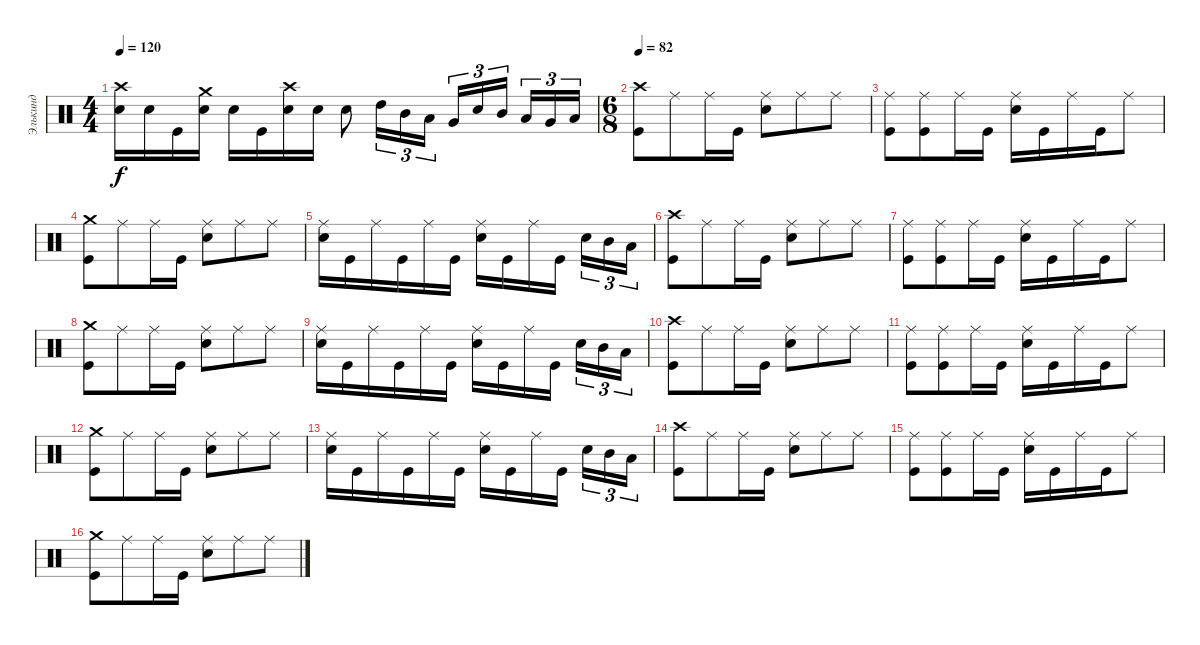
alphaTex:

\track ("Элькинд" "Элькинд") {instrument percussion}
\staff {score}
\articulation defaults
\ts (4 4)
\tempo 120
\clef neutral
\ks c
("Crash high (hit)" "Electric Snare (hit)").16{dy f} "Electric Snare (hit)".16 "Kick (hit)".16 ("Crash medium (hit)" "Electric Snare (hit)").16 "Electric Snare (hit)".16 "Kick (hit)".16 ("Crash high (hit)" "Electric Snare (hit)").16 "Electric Snare (hit)".16 "Electric Snare (hit)".8 "High Tom (hit)".16{tu (3 2)} "Mid Tom (hit)".16{tu (3 2)} "Low Tom (hit)".16{tu (3 2)} "Very Low Tom (hit)".16{tu (3 2)} "Electric Snare (hit)".16{tu (3 2)} "Mid Tom (hit)".16{tu (3 2) beam splitsecondary} "Low Tom (hit)".16{tu (3 2)} "Very Low Tom (hit)".16{tu (3 2)} "Low Floor Tom (hit)".16{tu (3 2)} |
\ts (6 8)
\tempo 82
("Kick (hit)" "Crash high (hit)").8 "Ride (middle)".8 "Ride (middle)".16 "Kick (hit)".16 ("Electric Snare (hit)" "Ride (middle)").8 "Ride (middle)".8 "Ride (middle)".8 |
("Ride (middle)" "Kick (hit)").8 ("Ride (middle)" "Kick (hit)").8 "Ride (middle)".16 "Kick (hit)".16 ("Ride (middle)" "Electric Snare (hit)").16 "Kick (hit)".16 "Ride (middle)".16 "Kick (hit)".16 "Ride (middle)".8 |
("Kick (hit)" "Crash medium (hit)").8 "Ride (middle)".8 "Ride (middle)".16 "Kick (hit)".16 ("Electric Snare (hit)" "Ride (middle)").8 "Ride (middle)".8 "Ride (middle)".8 |
("Electric Snare (hit)" "Ride (middle)").16 "Kick (hit)".16 "Ride (middle)".16 "Kick (hit)".16 "Ride (middle)".16 "Kick (hit)".16 ("Ride (middle)" "Electric Snare (hit)").16 "Kick (hit)".16 "Ride (middle)".16 "Kick (hit)".16{beam splitsecondary} "Electric Snare (hit)".16{tu (3 2)} "Mid Tom (hit)".16{tu (3 2)} "Low Tom (hit)".16{tu (3 2)} |
("Kick (hit)" "Crash high (hit)").8 "Ride (middle)".8 "Ride (middle)".16 "Kick (hit)".16 ("Electric Snare (hit)" "Ride (middle)").8 "Ride (middle)".8 "Ride (middle)".8 |
("Ride (middle)" "Kick (hit)").8 ("Ride (middle)" "Kick (hit)").8 "Ride (middle)".16 "Kick (hit)".16 ("Ride (middle)" "Electric Snare (hit)").16 "Kick (hit)".16 "Ride (middle)".16 "Kick (hit)".16 "Ride (middle)".8 |
("Kick (hit)" "Crash medium (hit)").8 "Ride (middle)".8 "Ride (middle)".16 "Kick (hit)".16 ("Electric Snare (hit)" "Ride (middle)").8 "Ride (middle)".8 "Ride (middle)".8 |
("Electric Snare (hit)" "Ride (middle)").16 "Kick (hit)".16 "Ride (middle)".16 "Kick (hit)".16 "Ride (middle)".16 "Kick (hit)".16 ("Ride (middle)" "Electric Snare (hit)").16 "Kick (hit)".16 "Ride (middle)".16 "Kick (hit)".16{beam splitsecondary} "Electric Snare (hit)".16{tu (3 2)} "Mid Tom (hit)".16{tu (3 2)} "Low Tom (hit)".16{tu (3 2)} |
("Kick (hit)" "Crash high (hit)").8 "Ride (middle)".8 "Ride (middle)".16 "Kick (hit)".16 ("Electric Snare (hit)" "Ride (middle)").8 "Ride (middle)".8 "Ride (middle)".8 |
("Ride (middle)" "Kick (hit)").8 ("Ride (middle)" "Kick (hit)").8 "Ride (middle)".16 "Kick (hit)".16 ("Ride (middle)" "Electric Snare (hit)").16 "Kick (hit)".16 "Ride (middle)".16 "Kick (hit)".16 "Ride (middle)".8 |
("Kick (hit)" "Crash medium (hit)").8 "Ride (middle)".8 "Ride (middle)".16 "Kick (hit)".16 ("Electric Snare (hit)" "Ride (middle)").8 "Ride (middle)".8 "Ride (middle)".8 |
("Electric Snare (hit)" "Ride (middle)").16 "Kick (hit)".16 "Ride (middle)".16 "Kick (hit)".16 "Ride (middle)".16 "Kick (hit)".16 ("Ride (middle)" "Electric Snare (hit)").16 "Kick (hit)".16 "Ride (middle)".16 "Kick (hit)".16{beam splitsecondary} "Electric Snare (hit)".16{tu (3 2)} "Mid Tom (hit)".16{tu (3 2)} "Low Tom (hit)".16{tu (3 2)} |
("Kick (hit)" "Crash high (hit)").8 "Ride (middle)".8 "Ride (middle)".16 "Kick (hit)".16 ("Electric Snare (hit)" "Ride (middle)").8 "Ride (middle)".8 "Ride (middle)".8 |
("Ride (middle)" "Kick (hit)").8 ("Ride (middle)" "Kick (hit)").8 "Ride (middle)".16 "Kick (hit)".16 ("Ride (middle)" "Electric Snare (hit)").16 "Kick (hit)".16 "Ride (middle)".16 "Kick (hit)".16 "Ride (middle)".8 |
("Kick (hit)" "Crash medium (hit)").8 "Ride (middle)".8 "Ride (middle)".16 "Kick (hit)".16 ("Electric Snare (hit)" "Ride (middle)").8 "Ride (middle)".8 "Ride (middle)".8
